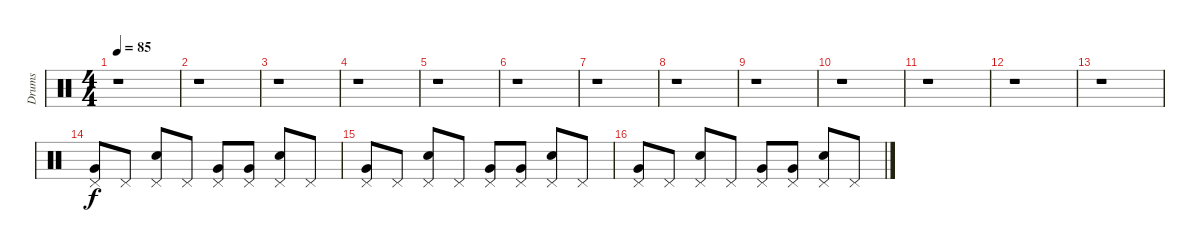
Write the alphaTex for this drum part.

\track ("Drums" "Drums") {instrument percussion}
\staff {score}
\articulation defaults
\ts (4 4)
\tempo 85
\clef neutral
\ks c
r.1{dy f} |
r.1 |
r.1 |
r.1 |
r.1 |
r.1 |
r.1 |
r.1 |
r.1 |
r.1 |
r.1 |
r.1 |
r.1 |
("Pedal Hi-Hat (hit)" "Very Low Tom (hit)").8 "Pedal Hi-Hat (hit)".8 ("Pedal Hi-Hat (hit)" "Snare (hit) 2").8 "Pedal Hi-Hat (hit)".8 ("Pedal Hi-Hat (hit)" "Very Low Tom (hit)").8 ("Pedal Hi-Hat (hit)" "Very Low Tom (hit)").8 ("Pedal Hi-Hat (hit)" "Snare (hit) 2").8 "Pedal Hi-Hat (hit)".8 |
("Pedal Hi-Hat (hit)" "Very Low Tom (hit)").8 "Pedal Hi-Hat (hit)".8 ("Pedal Hi-Hat (hit)" "Snare (hit) 2").8 "Pedal Hi-Hat (hit)".8 ("Pedal Hi-Hat (hit)" "Very Low Tom (hit)").8 ("Pedal Hi-Hat (hit)" "Very Low Tom (hit)").8 ("Pedal Hi-Hat (hit)" "Snare (hit) 2").8 "Pedal Hi-Hat (hit)".8 |
("Pedal Hi-Hat (hit)" "Very Low Tom (hit)").8 "Pedal Hi-Hat (hit)".8 ("Pedal Hi-Hat (hit)" "Snare (hit) 2").8 "Pedal Hi-Hat (hit)".8 ("Pedal Hi-Hat (hit)" "Very Low Tom (hit)").8 ("Pedal Hi-Hat (hit)" "Very Low Tom (hit)").8 ("Pedal Hi-Hat (hit)" "Snare (hit) 2").8 "Pedal Hi-Hat (hit)".8
